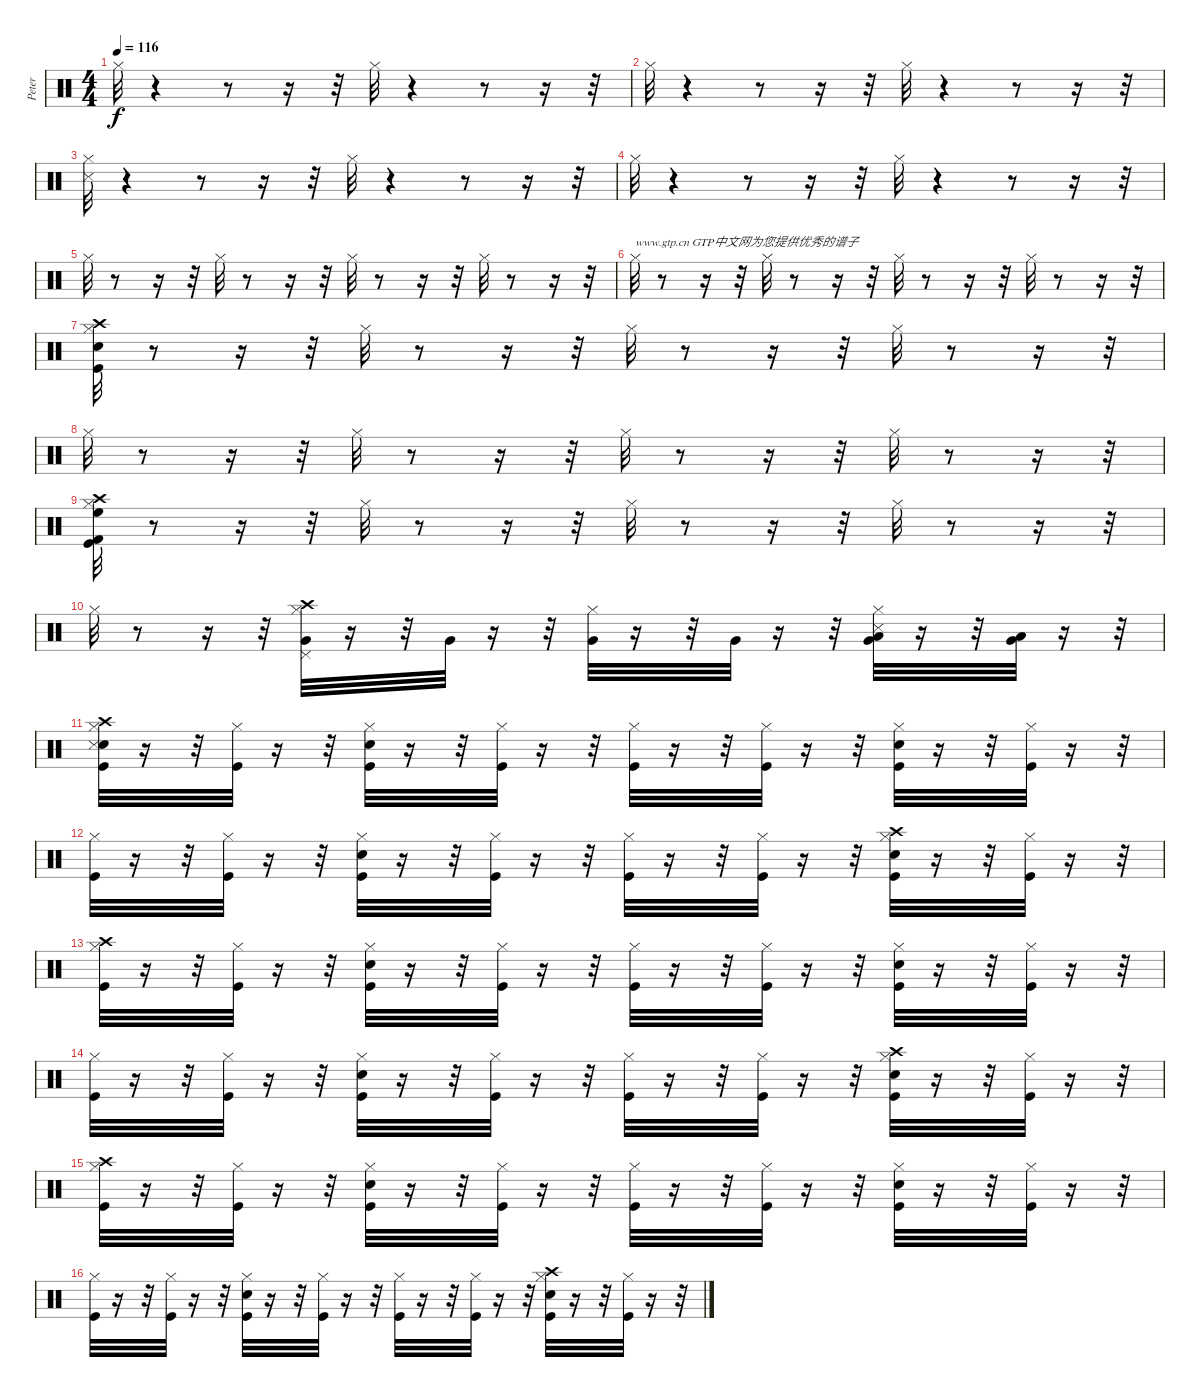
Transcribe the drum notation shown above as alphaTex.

\track ("Peter" "Peter") {instrument percussion}
\staff {score}
\articulation defaults
\ts (4 4)
\tempo 116
\clef neutral
\ks c "Hi-Hat (closed)".32{dy f}
r.4 r.8 r.16 r.32 "Hi-Hat (closed)".32 r.4 r.8 r.16 r.32 |
"Hi-Hat (closed)".32 r.4 r.8 r.16 r.32 "Hi-Hat (closed)".32 r.4 r.8 r.16 r.32 |
("Snare (side stick) 3" "Hi-Hat (closed)").32 r.4 r.8 r.16 r.32 "Hi-Hat (closed)".32 r.4 r.8 r.16 r.32 |
"Hi-Hat (closed)".32 r.4 r.8 r.16 r.32 "Hi-Hat (closed)".32 r.4 r.8 r.16 r.32 |
"Hi-Hat (closed)".32 r.8 r.16 r.32 "Hi-Hat (closed)".32 r.8 r.16 r.32 "Hi-Hat (closed)".32 r.8 r.16 r.32 "Hi-Hat (closed)".32 r.8 r.16 r.32 |
"Hi-Hat (closed)".32{txt "www.gtp.cn GTP中文网为您提供优秀的谱子"} r.8 r.16 r.32 "Hi-Hat (closed)".32 r.8 r.16 r.32 "Hi-Hat (closed)".32 r.8 r.16 r.32 "Hi-Hat (closed)".32 r.8 r.16 r.32 |
("Snare (hit) 2" "Hi-Hat (closed)" "Kick (hit)" "Crash high (hit)").32 r.8 r.16 r.32 "Hi-Hat (closed)".32 r.8 r.16 r.32 "Hi-Hat (closed)".32 r.8 r.16 r.32 "Hi-Hat (closed)".32 r.8 r.16 r.32 |
"Hi-Hat (closed)".32 r.8 r.16 r.32 "Hi-Hat (closed)".32 r.8 r.16 r.32 "Hi-Hat (closed)".32 r.8 r.16 r.32 "Hi-Hat (closed)".32 r.8 r.16 r.32 |
("Kick (hit) 2" "Kick (hit)" "Crash high (hit)" "High Floor Tom (hit)" "Hi-Hat (closed)").32 r.8 r.16 r.32 "Hi-Hat (closed)".32 r.8 r.16 r.32 "Hi-Hat (closed)".32 r.8 r.16 r.32 "Hi-Hat (closed)".32 r.8 r.16 r.32 |
"Hi-Hat (closed)".32 r.8 r.16 r.32 ("Very Low Tom (hit)" "Pedal Hi-Hat (hit)" "Crash high (hit)" "Hi-Hat (closed)").32 r.16 r.32 "Very Low Tom (hit)".32 r.16 r.32 ("Very Low Tom (hit)" "Hi-Hat (closed)").32 r.16 r.32 "Very Low Tom (hit)".32 r.16 r.32 ("Low Floor Tom (hit)" "Very Low Tom (hit)" "Snare (side stick) 3" "Hi-Hat (closed)").32 r.16 r.32 ("Low Floor Tom (hit)" "Very Low Tom (hit)").32 r.16 r.32 |
("Snare (hit) 2" "Snare (side stick) 3" "Kick (hit)" "Crash high (hit)" "Hi-Hat (closed)").32 r.16 r.32 ("Kick (hit)" "Hi-Hat (closed)").32 r.16 r.32 ("Kick (hit)" "Snare (hit) 2" "Hi-Hat (closed)").32 r.16 r.32 ("Kick (hit)" "Hi-Hat (closed)").32 r.16 r.32 ("Kick (hit)" "Hi-Hat (closed)").32 r.16 r.32 ("Kick (hit)" "Hi-Hat (closed)").32 r.16 r.32 ("Kick (hit)" "Snare (hit) 2" "Hi-Hat (closed)").32 r.16 r.32 ("Kick (hit)" "Hi-Hat (closed)").32 r.16 r.32 |
("Kick (hit)" "Hi-Hat (closed)").32 r.16 r.32 ("Kick (hit)" "Hi-Hat (closed)").32 r.16 r.32 ("Kick (hit)" "Snare (hit) 2" "Hi-Hat (closed)").32 r.16 r.32 ("Kick (hit)" "Hi-Hat (closed)").32 r.16 r.32 ("Kick (hit)" "Hi-Hat (closed)").32 r.16 r.32 ("Kick (hit)" "Hi-Hat (closed)").32 r.16 r.32 ("Crash high (hit)" "Kick (hit)" "Snare (hit) 2" "Hi-Hat (closed)").32 r.16 r.32 ("Kick (hit)" "Hi-Hat (closed)").32 r.16 r.32 |
("Hi-Hat (closed)" "Kick (hit)" "Crash high (hit)").32 r.16 r.32 ("Kick (hit)" "Hi-Hat (closed)").32 r.16 r.32 ("Kick (hit)" "Snare (hit) 2" "Hi-Hat (closed)").32 r.16 r.32 ("Kick (hit)" "Hi-Hat (closed)").32 r.16 r.32 ("Kick (hit)" "Hi-Hat (closed)").32 r.16 r.32 ("Kick (hit)" "Hi-Hat (closed)").32 r.16 r.32 ("Kick (hit)" "Snare (hit) 2" "Hi-Hat (closed)").32 r.16 r.32 ("Kick (hit)" "Hi-Hat (closed)").32 r.16 r.32 |
("Kick (hit)" "Hi-Hat (closed)").32 r.16 r.32 ("Kick (hit)" "Hi-Hat (closed)").32 r.16 r.32 ("Kick (hit)" "Snare (hit) 2" "Hi-Hat (closed)").32 r.16 r.32 ("Kick (hit)" "Hi-Hat (closed)").32 r.16 r.32 ("Kick (hit)" "Hi-Hat (closed)").32 r.16 r.32 ("Kick (hit)" "Hi-Hat (closed)").32 r.16 r.32 ("Crash high (hit)" "Snare (hit) 2" "Kick (hit)" "Hi-Hat (closed)").32 r.16 r.32 ("Kick (hit)" "Hi-Hat (closed)").32 r.16 r.32 |
("Crash high (hit)" "Kick (hit)" "Hi-Hat (closed)").32 r.16 r.32 ("Hi-Hat (closed)" "Kick (hit)").32 r.16 r.32 ("Hi-Hat (closed)" "Snare (hit) 2" "Kick (hit)").32 r.16 r.32 ("Hi-Hat (closed)" "Kick (hit)").32 r.16 r.32 ("Hi-Hat (closed)" "Kick (hit)").32 r.16 r.32 ("Hi-Hat (closed)" "Kick (hit)").32 r.16 r.32 ("Hi-Hat (closed)" "Snare (hit) 2" "Kick (hit)").32 r.16 r.32 ("Hi-Hat (closed)" "Kick (hit)").32 r.16 r.32 |
("Hi-Hat (closed)" "Kick (hit)").32 r.16 r.32 ("Hi-Hat (closed)" "Kick (hit)").32 r.16 r.32 ("Hi-Hat (closed)" "Snare (hit) 2" "Kick (hit)").32 r.16 r.32 ("Hi-Hat (closed)" "Kick (hit)").32 r.16 r.32 ("Kick (hit)" "Hi-Hat (closed)").32 r.16 r.32 ("Kick (hit)" "Hi-Hat (closed)").32 r.16 r.32 ("Crash high (hit)" "Kick (hit)" "Snare (hit) 2" "Hi-Hat (closed)").32 r.16 r.32 ("Kick (hit)" "Hi-Hat (closed)").32 r.16 r.32
